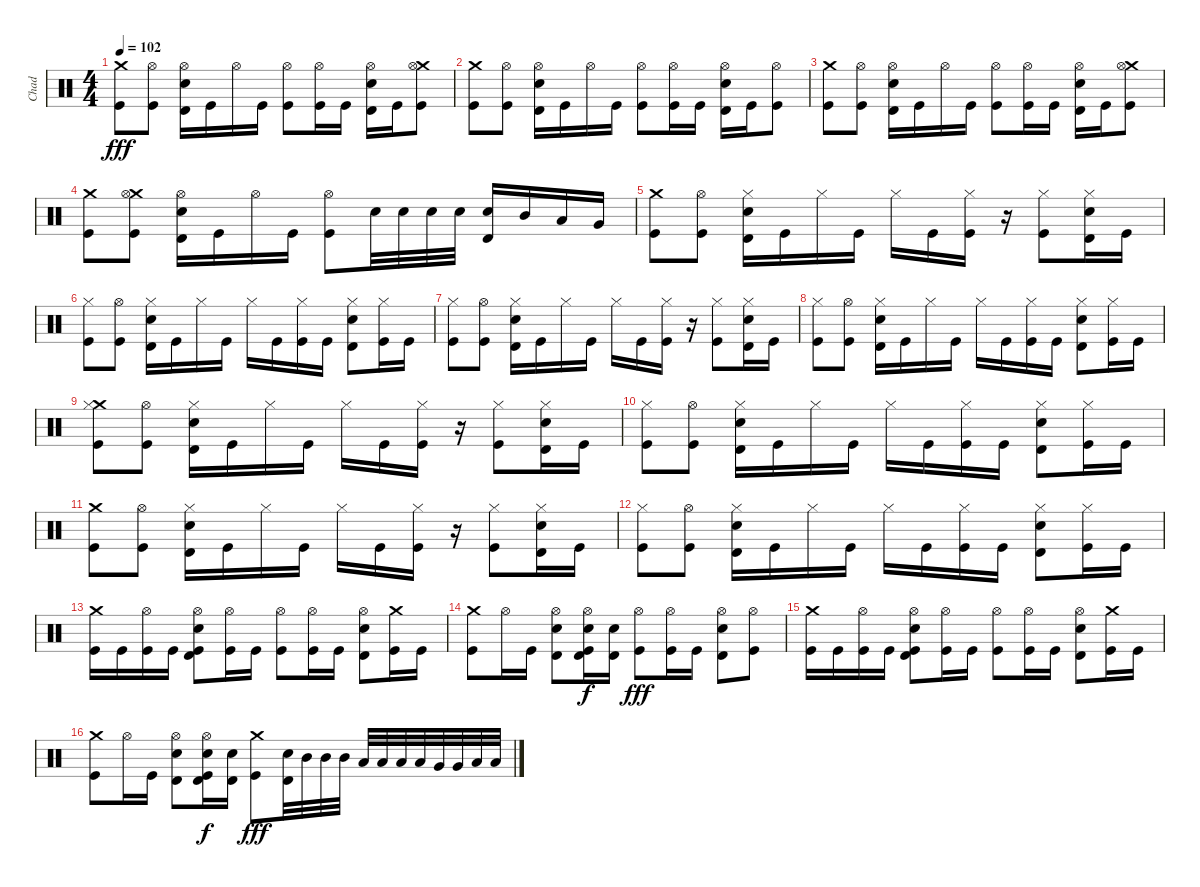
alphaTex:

\track ("Chad" "Chad") {instrument percussion}
\staff {score}
\articulation defaults
\ts (4 4)
\tempo 102
\clef neutral
\ks c
("Crash medium (hit)" "Kick (hit)").8{dy fff} ("Hi-Hat (open)" "Kick (hit)").8 ("Hi-Hat (open)" "Electric Snare (hit)" "Timbale high (hit)").16 "Kick (hit)".16 "Hi-Hat (open)".16 "Kick (hit)".16 ("Hi-Hat (open)" "Kick (hit)").8 ("Hi-Hat (open)" "Kick (hit)").16 "Kick (hit)".16 ("Hi-Hat (open)" "Electric Snare (hit)" "Timbale high (hit)").16 "Kick (hit)".16 ("Crash medium (hit)" "Hi-Hat (open)" "Kick (hit)").8 |
("Crash medium (hit)" "Kick (hit)").8 ("Hi-Hat (open)" "Kick (hit)").8 ("Hi-Hat (open)" "Electric Snare (hit)" "Timbale high (hit)").16 "Kick (hit)".16 "Hi-Hat (open)".16 "Kick (hit)".16 ("Hi-Hat (open)" "Kick (hit)").8 ("Hi-Hat (open)" "Kick (hit)").16 "Kick (hit)".16 ("Hi-Hat (open)" "Electric Snare (hit)" "Timbale high (hit)").16 "Kick (hit)".16 ("Hi-Hat (open)" "Kick (hit)").8 |
("Crash medium (hit)" "Kick (hit)").8 ("Hi-Hat (open)" "Kick (hit)").8 ("Hi-Hat (open)" "Electric Snare (hit)" "Timbale high (hit)").16 "Kick (hit)".16 "Hi-Hat (open)".16 "Kick (hit)".16 ("Hi-Hat (open)" "Kick (hit)").8 ("Hi-Hat (open)" "Kick (hit)").16 "Kick (hit)".16 ("Hi-Hat (open)" "Electric Snare (hit)" "Timbale high (hit)").16 "Kick (hit)".16 ("Crash medium (hit)" "Hi-Hat (open)" "Kick (hit)").8 |
("Crash medium (hit)" "Kick (hit)").8 ("Crash medium (hit)" "Hi-Hat (open)" "Kick (hit)").8 ("Hi-Hat (open)" "Electric Snare (hit)" "Timbale high (hit)").16 "Kick (hit)".16 "Hi-Hat (open)".16 "Kick (hit)".16 ("Hi-Hat (open)" "Kick (hit)").8 "Electric Snare (hit)".32 "Electric Snare (hit)".32 "Electric Snare (hit)".32 "Electric Snare (hit)".32 ("Electric Snare (hit)" "Timbale high (hit)").16 "Mid Tom (hit)".16 "Low Tom (hit)".16 "Very Low Tom (hit)".16 |
("Crash medium (hit)" "Kick (hit)").8 ("Hi-Hat (open)" "Kick (hit)").8 ("Hi-Hat (closed)" "Electric Snare (hit)" "Timbale high (hit)").16 "Kick (hit)".16 "Hi-Hat (closed)".16 "Kick (hit)".16 "Hi-Hat (closed)".16 "Kick (hit)".16 ("Hi-Hat (closed)" "Kick (hit)").16 r.16 ("Hi-Hat (closed)" "Kick (hit)").8 ("Hi-Hat (closed)" "Electric Snare (hit)" "Timbale high (hit)").16 "Kick (hit)".16 |
("Hi-Hat (closed)" "Kick (hit)").8 ("Hi-Hat (open)" "Kick (hit)").8 ("Hi-Hat (closed)" "Electric Snare (hit)" "Timbale high (hit)").16 "Kick (hit)".16 "Hi-Hat (closed)".16 "Kick (hit)".16 "Hi-Hat (closed)".16 "Kick (hit)".16 ("Hi-Hat (closed)" "Kick (hit)").16 "Kick (hit)".16 ("Hi-Hat (closed)" "Electric Snare (hit)" "Timbale high (hit)").8 ("Hi-Hat (closed)" "Kick (hit)").16 "Kick (hit)".16 |
("Hi-Hat (closed)" "Kick (hit)").8 ("Hi-Hat (open)" "Kick (hit)").8 ("Hi-Hat (closed)" "Electric Snare (hit)" "Timbale high (hit)").16 "Kick (hit)".16 "Hi-Hat (closed)".16 "Kick (hit)".16 "Hi-Hat (closed)".16 "Kick (hit)".16 ("Hi-Hat (closed)" "Kick (hit)").16 r.16 ("Hi-Hat (closed)" "Kick (hit)").8 ("Hi-Hat (closed)" "Electric Snare (hit)" "Timbale high (hit)").16 "Kick (hit)".16 |
("Hi-Hat (closed)" "Kick (hit)").8 ("Hi-Hat (open)" "Kick (hit)").8 ("Hi-Hat (closed)" "Electric Snare (hit)" "Timbale high (hit)").16 "Kick (hit)".16 "Hi-Hat (closed)".16 "Kick (hit)".16 "Hi-Hat (closed)".16 "Kick (hit)".16 ("Hi-Hat (closed)" "Kick (hit)").16 "Kick (hit)".16 ("Hi-Hat (closed)" "Electric Snare (hit)" "Timbale high (hit)").8 ("Hi-Hat (closed)" "Kick (hit)").16 "Kick (hit)".16 |
("Crash medium (hit)" "Hi-Hat (closed)" "Kick (hit)").8 ("Hi-Hat (open)" "Kick (hit)").8 ("Hi-Hat (closed)" "Electric Snare (hit)" "Timbale high (hit)").16 "Kick (hit)".16 "Hi-Hat (closed)".16 "Kick (hit)".16 "Hi-Hat (closed)".16 "Kick (hit)".16 ("Hi-Hat (closed)" "Kick (hit)").16 r.16 ("Hi-Hat (closed)" "Kick (hit)").8 ("Hi-Hat (closed)" "Electric Snare (hit)" "Timbale high (hit)").16 "Kick (hit)".16 |
("Hi-Hat (closed)" "Kick (hit)").8 ("Hi-Hat (open)" "Kick (hit)").8 ("Hi-Hat (closed)" "Electric Snare (hit)" "Timbale high (hit)").16 "Kick (hit)".16 "Hi-Hat (closed)".16 "Kick (hit)".16 "Hi-Hat (closed)".16 "Kick (hit)".16 ("Hi-Hat (closed)" "Kick (hit)").16 "Kick (hit)".16 ("Hi-Hat (closed)" "Electric Snare (hit)" "Timbale high (hit)").8 ("Hi-Hat (closed)" "Kick (hit)").16 "Kick (hit)".16 |
("Crash medium (hit)" "Kick (hit)").8 ("Hi-Hat (open)" "Kick (hit)").8 ("Hi-Hat (closed)" "Electric Snare (hit)" "Timbale high (hit)").16 "Kick (hit)".16 "Hi-Hat (closed)".16 "Kick (hit)".16 "Hi-Hat (closed)".16 "Kick (hit)".16 ("Hi-Hat (closed)" "Kick (hit)").16 r.16 ("Hi-Hat (closed)" "Kick (hit)").8 ("Hi-Hat (closed)" "Electric Snare (hit)" "Timbale high (hit)").16 "Kick (hit)".16 |
("Hi-Hat (closed)" "Kick (hit)").8 ("Hi-Hat (open)" "Kick (hit)").8 ("Hi-Hat (closed)" "Electric Snare (hit)" "Timbale high (hit)").16 "Kick (hit)".16 "Hi-Hat (closed)".16 "Kick (hit)".16 "Hi-Hat (closed)".16 "Kick (hit)".16 ("Hi-Hat (closed)" "Kick (hit)").16 "Kick (hit)".16 ("Hi-Hat (closed)" "Electric Snare (hit)" "Timbale high (hit)").8 ("Hi-Hat (closed)" "Kick (hit)").16 "Kick (hit)".16 |
("Crash medium (hit)" "Kick (hit)").16 "Kick (hit)".16 ("Hi-Hat (open)" "Kick (hit)").16 "Kick (hit)".16 ("Hi-Hat (open)" "Electric Snare (hit)" "Timbale high (hit)" "Kick (hit)").8 ("Hi-Hat (open)" "Kick (hit)").16 "Kick (hit)".16 ("Hi-Hat (open)" "Kick (hit)").8 ("Hi-Hat (open)" "Kick (hit)").16 "Kick (hit)".16 ("Hi-Hat (open)" "Electric Snare (hit)" "Timbale high (hit)").8 ("Crash medium (hit)" "Kick (hit)").16 "Kick (hit)".16 |
("Crash medium (hit)" "Kick (hit)").8 "Hi-Hat (open)".16 "Kick (hit)".16 ("Hi-Hat (open)" "Electric Snare (hit)" "Timbale high (hit)").8 ("Hi-Hat (open)" "Electric Snare (hit)" "Timbale high (hit)" "Kick (hit)").16{dy f} ("Electric Snare (hit)" "Timbale high (hit)").16 ("Hi-Hat (open)" "Kick (hit)").8{dy fff} ("Hi-Hat (open)" "Kick (hit)").16 "Kick (hit)".16 ("Hi-Hat (open)" "Electric Snare (hit)" "Timbale high (hit)").8 ("Hi-Hat (open)" "Kick (hit)").8 |
("Crash medium (hit)" "Kick (hit)").16 "Kick (hit)".16 ("Hi-Hat (open)" "Kick (hit)").16 "Kick (hit)".16 ("Hi-Hat (open)" "Electric Snare (hit)" "Timbale high (hit)" "Kick (hit)").8 ("Hi-Hat (open)" "Kick (hit)").16 "Kick (hit)".16 ("Hi-Hat (open)" "Kick (hit)").8 ("Hi-Hat (open)" "Kick (hit)").16 "Kick (hit)".16 ("Hi-Hat (open)" "Electric Snare (hit)" "Timbale high (hit)").8 ("Crash medium (hit)" "Kick (hit)").16 "Kick (hit)".16 |
("Crash medium (hit)" "Kick (hit)").8 "Hi-Hat (open)".16 "Kick (hit)".16 ("Hi-Hat (open)" "Electric Snare (hit)" "Timbale high (hit)").8 ("Hi-Hat (open)" "Electric Snare (hit)" "Timbale high (hit)" "Kick (hit)").16{dy f} ("Electric Snare (hit)" "Timbale high (hit)").16 ("Crash medium (hit)" "Kick (hit)").8{dy fff} ("Electric Snare (hit)" "Timbale high (hit)").32 "Mid Tom (hit)".32 "Mid Tom (hit)".32 "Mid Tom (hit)".32 "Low Tom (hit)".32 "Low Tom (hit)".32 "Low Tom (hit)".32 "Low Tom (hit)".32 "Very Low Tom (hit)".32 "Very Low Tom (hit)".32 "Low Floor Tom (hit)".32 "Low Floor Tom (hit)".32
